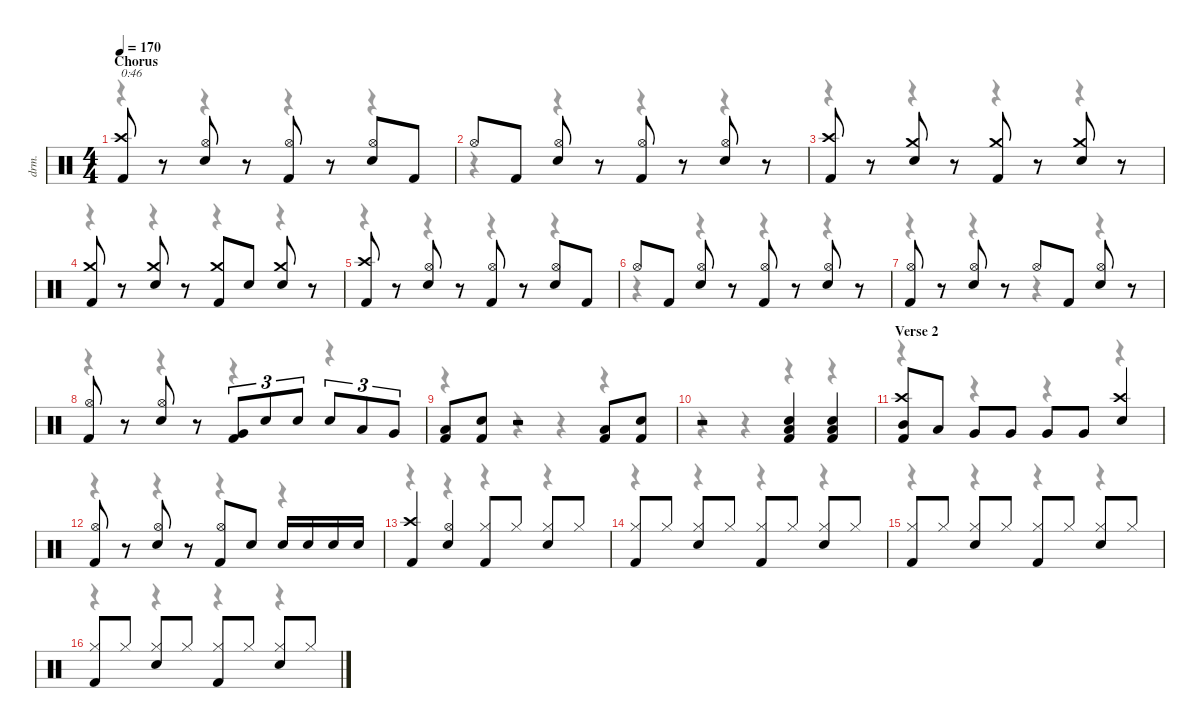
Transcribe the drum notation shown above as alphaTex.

\defaultSystemsLayout 4
\hideDynamics
\bracketExtendMode nobrackets
\otherSystemsTrackNameOrientation horizontal
\track ("Drums" "drm.") {instrument percussion}
\staff {score}
\articulation defaults
\voice
\ts (4 4)
\section ("" "Chorus")
\tempo 170
\clef neutral
\ks c
("Crash high (hit)" "Kick (hit) 2").8{txt "0:46" dy f beam Up} r.8{beam Up} ("Hi-Hat (open)" "Snare (hit) 2").8{beam Up} r.8{beam Up} ("Hi-Hat (open)" "Kick (hit) 2").8{beam Up} r.8{beam Up} ("Hi-Hat (open)" "Snare (hit) 2").8{beam Up} "Kick (hit) 2".8{beam Up} |
"Hi-Hat (open)".8{beam Up} "Kick (hit) 2".8{beam Up} ("Hi-Hat (open)" "Snare (hit) 2").8{beam Up} r.8{beam Up} ("Hi-Hat (open)" "Kick (hit) 2").8{beam Up} r.8{beam Up} ("Hi-Hat (open)" "Snare (hit) 2").8{beam Up} r.8{beam Up} |
("Crash high (hit)" "Kick (hit) 2").8{beam Up} r.8{beam Up} ("Crash medium (hit)" "Snare (hit) 2").8{beam Up} r.8{beam Up} ("Crash medium (hit)" "Kick (hit) 2").8{beam Up} r.8{beam Up} ("Crash medium (hit)" "Snare (hit) 2").8{beam Up} r.8{beam Up} |
("Crash medium (hit)" "Kick (hit) 2").8{beam Up} r.8{beam Up} ("Crash medium (hit)" "Snare (hit) 2").8{beam Up} r.8{beam Up} ("Crash medium (hit)" "Kick (hit) 2").8{beam Up} "Snare (hit) 2".8{beam Up} ("Crash medium (hit)" "Snare (hit) 2").8{beam Up} r.8{beam Up} |
("Crash high (hit)" "Kick (hit) 2").8{beam Up} r.8{beam Up} ("Hi-Hat (open)" "Snare (hit) 2").8{beam Up} r.8{beam Up} ("Hi-Hat (open)" "Kick (hit) 2").8{beam Up} r.8{beam Up} ("Hi-Hat (open)" "Snare (hit) 2").8{beam Up} "Kick (hit) 2".8{beam Up} |
"Hi-Hat (open)".8{beam Up} "Kick (hit) 2".8{beam Up} ("Hi-Hat (open)" "Snare (hit) 2").8{beam Up} r.8{beam Up} ("Hi-Hat (open)" "Kick (hit) 2").8{beam Up} r.8{beam Up} ("Hi-Hat (open)" "Snare (hit) 2").8{beam Up} r.8{beam Up} |
("Hi-Hat (open)" "Kick (hit) 2").8{beam Up} r.8{beam Up} ("Hi-Hat (open)" "Snare (hit) 2").8{beam Up} r.8{beam Up} "Hi-Hat (open)".8{beam Up} "Kick (hit) 2".8{beam Up} ("Hi-Hat (open)" "Snare (hit) 2").8{beam Up} r.8{beam Up} |
("Hi-Hat (open)" "Kick (hit) 2").8{beam Up} r.8{beam Up} ("Hi-Hat (open)" "Snare (hit) 2").8{beam Up} r.8{beam Up} ("Very Low Tom (hit)" "Kick (hit) 2").8{tu (3 2) beam Up} "Snare (hit) 2".8{tu (3 2) beam Up} "Snare (hit) 2".8{tu (3 2) beam Up} "Snare (hit) 2".8{tu (3 2) beam Up} "Low Tom (hit)".8{tu (3 2) beam Up} "Very Low Tom (hit)".8{tu (3 2) beam Up} |
("Low Tom (hit)" "Kick (hit) 2").8{beam Up} ("Snare (hit) 2" "Kick (hit) 2").8{beam Up} r.2{beam Up} ("Low Tom (hit)" "Kick (hit) 2").8{beam Up} ("Snare (hit) 2" "Kick (hit) 2").8{beam Up} |
r.2{beam Up} ("Low Tom (hit)" "Snare (hit) 2" "Kick (hit) 2").4{beam Up} ("Low Tom (hit)" "Snare (hit) 2" "Kick (hit) 2").4{beam Up} |
\section ("" "Verse 2")
("Crash high (hit)" "Mid Tom (hit)" "Kick (hit) 2").8{beam Up} "Low Tom (hit)".8{beam Up} "Very Low Tom (hit)".8{beam Up} "Very Low Tom (hit)".8{beam Up} "Very Low Tom (hit)".8{beam Up} "Very Low Tom (hit)".8{beam Up} ("Crash high (hit)" "Snare (hit) 2").4{beam Up} |
("Hi-Hat (open)" "Kick (hit) 2").8{beam Up} r.8{beam Up} ("Hi-Hat (open)" "Snare (hit) 2").8{beam Up} r.8{beam Up} ("Hi-Hat (open)" "Kick (hit) 2").8{beam Up} "Snare (hit) 2".8{beam Up} "Snare (hit) 2".16{beam Up} "Snare (hit) 2".16{beam Up} "Snare (hit) 2".16{beam Up} "Snare (hit) 2".16{beam Up} |
("Crash high (hit)" "Kick (hit) 2").4{beam Up} ("Hi-Hat (open)" "Snare (hit) 2").4{beam Up} ("Hi-Hat (closed)" "Kick (hit) 2").8{beam Up} "Hi-Hat (closed)".8{beam Up} ("Hi-Hat (closed)" "Snare (hit) 2").8{beam Up} "Hi-Hat (closed)".8{beam Up} |
("Hi-Hat (closed)" "Kick (hit) 2").8{beam Up} "Hi-Hat (closed)".8{beam Up} ("Hi-Hat (closed)" "Snare (hit) 2").8{beam Up} "Hi-Hat (closed)".8{beam Up} ("Hi-Hat (closed)" "Kick (hit) 2").8{beam Up} "Hi-Hat (closed)".8{beam Up} ("Hi-Hat (closed)" "Snare (hit) 2").8{beam Up} "Hi-Hat (closed)".8{beam Up} |
("Hi-Hat (closed)" "Kick (hit) 2").8{beam Up} "Hi-Hat (closed)".8{beam Up} ("Hi-Hat (closed)" "Snare (hit) 2").8{beam Up} "Hi-Hat (closed)".8{beam Up} ("Hi-Hat (closed)" "Kick (hit) 2").8{beam Up} "Hi-Hat (closed)".8{beam Up} ("Hi-Hat (closed)" "Snare (hit) 2").8{beam Up} "Hi-Hat (closed)".8{beam Up} |
("Hi-Hat (closed)" "Kick (hit) 2").8{beam Up} "Hi-Hat (closed)".8{beam Up} ("Hi-Hat (closed)" "Snare (hit) 2").8{beam Up} "Hi-Hat (closed)".8{beam Up} ("Hi-Hat (closed)" "Kick (hit) 2").8{beam Up} "Hi-Hat (closed)".8{beam Up} ("Hi-Hat (closed)" "Snare (hit) 2").8{beam Up} "Hi-Hat (closed)".8{beam Up}
\voice
\clef neutral
\ottava regular
\simile none
\ks c
r.4{dy mf beam Down} r.4{beam Down} r.4{beam Down} r.4{beam Down} |
r.4{beam Down} r.4{beam Down} r.4{beam Down} r.4{beam Down} |
r.4{beam Down} r.4{beam Down} r.4{beam Down} r.4{beam Down} |
r.4{beam Down} r.4{beam Down} r.4{beam Down} r.4{beam Down} |
r.4{beam Down} r.4{beam Down} r.4{beam Down} r.4{beam Down} |
r.4{beam Down} r.4{beam Down} r.4{beam Down} r.4{beam Down} |
r.4{beam Down} r.4{beam Down} r.4{beam Down} r.4{beam Down} |
r.4{beam Down} r.4{beam Down} r.4{beam Down} r.4{beam Down} |
r.4{beam Down} r.4{beam Down} r.4{beam Down} r.4{beam Down} |
r.4{beam Down} r.4{beam Down} r.4{beam Down} r.4{beam Down} |
r.4{beam Down} r.4{beam Down} r.4{beam Down} r.4{beam Down} |
r.4{beam Down} r.4{beam Down} r.4{beam Down} r.4{beam Down} |
r.4{beam Down} r.4{beam Down} r.4{beam Down} r.4{beam Down} |
r.4{beam Down} r.4{beam Down} r.4{beam Down} r.4{beam Down} |
r.4{beam Down} r.4{beam Down} r.4{beam Down} r.4{beam Down} |
r.4{beam Down} r.4{beam Down} r.4{beam Down} r.4{beam Down}
